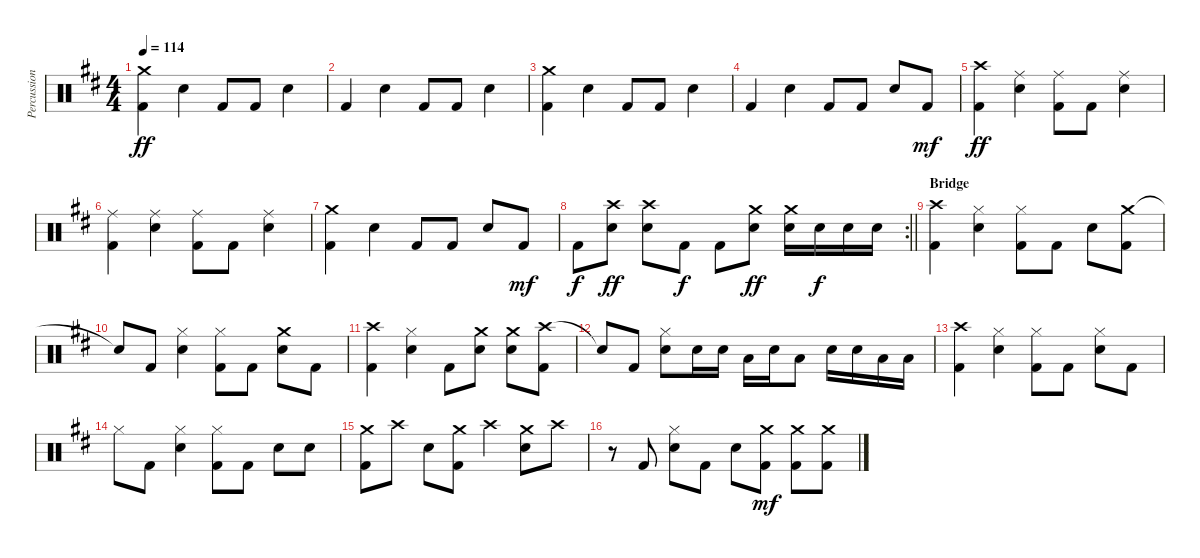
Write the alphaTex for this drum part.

\track ("Percussion" "Percussion") {instrument percussion}
\staff {score}
\articulation defaults
\ts (4 4)
\tempo 114
\clef neutral
\ks d
("Crash medium (hit)" "Kick (hit) 2").4{dy ff} "Snare (hit) 2".4 "Kick (hit) 2".8 "Kick (hit) 2".8 "Snare (hit) 2".4 |
"Kick (hit) 2".4 "Snare (hit) 2".4 "Kick (hit) 2".8 "Kick (hit) 2".8 "Snare (hit) 2".4 |
("Crash medium (hit)" "Kick (hit) 2").4 "Snare (hit) 2".4 "Kick (hit) 2".8 "Kick (hit) 2".8 "Snare (hit) 2".4 |
"Kick (hit) 2".4 "Snare (hit) 2".4 "Kick (hit) 2".8 "Kick (hit) 2".8 "Snare (hit) 2".8 "Kick (hit) 2".8{dy mf} |
("Crash high (hit)" "Kick (hit) 2").4{dy ff} ("Ride (middle)" "Snare (hit) 2").4 ("Ride (middle)" "Kick (hit) 2").8 "Kick (hit) 2".8 ("Ride (middle)" "Snare (hit) 2").4 |
("Ride (middle)" "Kick (hit) 2").4 ("Ride (middle)" "Snare (hit) 2").4 ("Ride (middle)" "Kick (hit) 2").8 "Kick (hit) 2".8 ("Ride (middle)" "Snare (hit) 2").4 |
("Crash medium (hit)" "Kick (hit) 2").4 "Snare (hit) 2".4 "Kick (hit) 2".8 "Kick (hit) 2".8 "Snare (hit) 2".8 "Kick (hit) 2".8{dy mf} |
\rc 2
\barLineRight lightlight "Kick (hit) 2".8{dy f}
("Crash high (hit)" "Snare (hit) 2").8{dy ff} ("Crash high (hit)" "Snare (hit) 2").8 "Kick (hit) 2".8{dy f} "Kick (hit) 2".8 ("Crash medium (hit)" "Snare (hit) 2").8{dy ff} ("Crash medium (hit)" "Snare (hit) 2").16 "Snare (hit) 2".16{dy f} "Snare (hit) 2".16 "Snare (hit) 2".16 |
\section ("" "Bridge")
("Crash high (hit)" "Kick (hit) 2").4 ("Hi-Hat (closed)" "Snare (hit) 2").4 ("Hi-Hat (closed)" "Kick (hit) 2").8 "Kick (hit) 2".8 "Snare (hit) 2".8 ("Crash medium (hit)" "Kick (hit) 2").8 |
"Snare (hit)"{t}.8 "Kick (hit) 2".8 ("Hi-Hat (closed)" "Snare (hit) 2").4 ("Hi-Hat (closed)" "Kick (hit) 2").8 "Kick (hit) 2".8 ("Crash medium (hit)" "Snare (hit) 2").8 "Kick (hit) 2".8 |
("Crash high (hit)" "Kick (hit) 2").4 ("Hi-Hat (closed)" "Snare (hit) 2").4 "Kick (hit) 2".8 ("Crash medium (hit)" "Snare (hit) 2").8 ("Crash medium (hit)" "Snare (hit) 2").8 ("Crash high (hit)" "Kick (hit) 2").8 |
"Snare (hit)"{t}.8 "Kick (hit) 2".8 ("Hi-Hat (closed)" "Snare (hit) 2").8 "Snare (hit) 2".16 "Snare (hit) 2".16 "Low Tom (hit)".16 "Snare (hit) 2".16 "Low Tom (hit)".8 "Snare (hit) 2".16 "Snare (hit) 2".16 "Low Tom (hit)".16 "Low Tom (hit)".16 |
("Crash high (hit)" "Kick (hit) 2").4 ("Hi-Hat (closed)" "Snare (hit) 2").4 ("Hi-Hat (closed)" "Kick (hit) 2").8 "Kick (hit) 2".8 ("Hi-Hat (closed)" "Snare (hit) 2").8 "Kick (hit) 2".8 |
"Hi-Hat (closed)".8 "Kick (hit) 2".8 ("Hi-Hat (closed)" "Snare (hit) 2").4 ("Hi-Hat (closed)" "Kick (hit) 2").8 "Kick (hit) 2".8 "Snare (hit) 2".8 "Snare (hit) 2".8 |
("Crash medium (hit)" "Kick (hit) 2").8 "Crash high (hit)".8 "Snare (hit) 2".8 ("Crash medium (hit)" "Kick (hit) 2").8 "Crash high (hit)".4 ("Crash medium (hit)" "Snare (hit) 2").8 "Crash high (hit)".8 |
r.8 "Kick (hit) 2".8 ("Hi-Hat (closed)" "Snare (hit) 2").8 "Kick (hit) 2".8 "Snare (hit) 2".8 ("Crash medium (hit)" "Kick (hit) 2").8{dy mf} ("Crash medium (hit)" "Kick (hit) 2").8 ("Crash medium (hit)" "Kick (hit) 2").8
